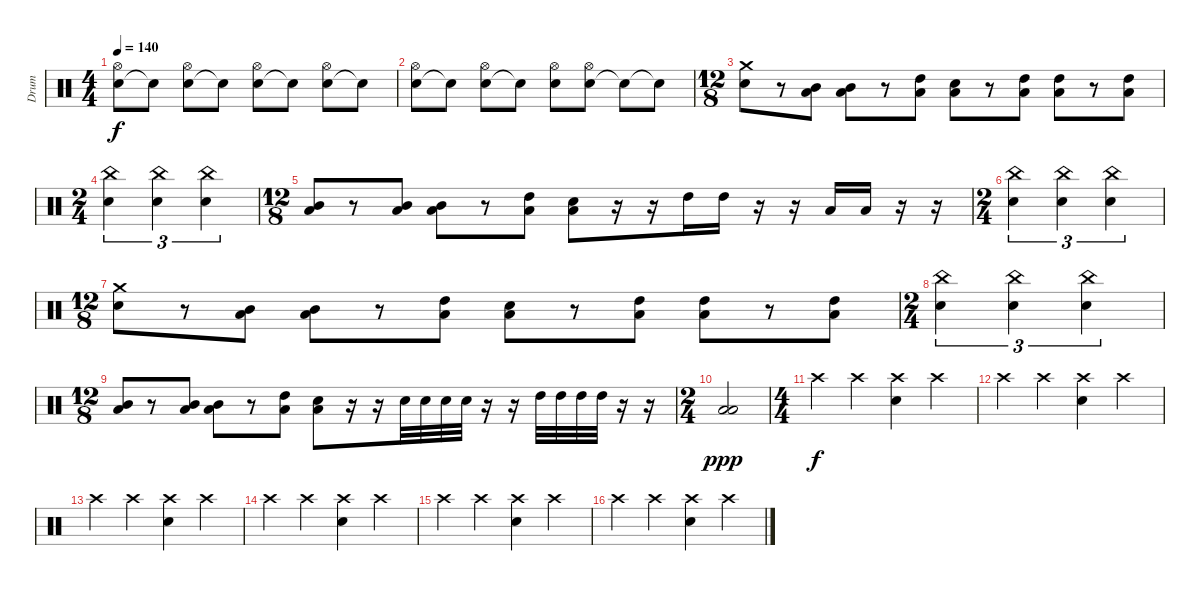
\track ("Drum" "Drum") {instrument percussion}
\staff {score}
\articulation defaults
\ts (4 4)
\tempo 140
\clef neutral
\ks c
("Snare (hit) 2" "Hi-Hat (open)").8{dy f} "Snare (hit)"{t}.8 ("Snare (hit) 2" "Hi-Hat (open)").8 "Snare (hit)"{t}.8 ("Snare (hit) 2" "Hi-Hat (open)").8 "Snare (hit)"{t}.8 ("Snare (hit) 2" "Hi-Hat (open)").8 "Snare (hit)"{t}.8 |
("Snare (hit) 2" "Hi-Hat (open)").8 "Snare (hit)"{t}.8 ("Snare (hit) 2" "Hi-Hat (open)").8 "Snare (hit)"{t}.8 ("Snare (hit) 2" "Hi-Hat (open)").8 ("Snare (hit) 2" "Hi-Hat (open)").8 "Snare (hit)"{t}.8 "Snare (hit)"{t}.8 |
\ts (12 8)
("Crash medium (hit)" "Snare (hit) 2").8 r.8 ("Mid Tom (hit)" "Low Tom (hit)").8 ("Mid Tom (hit)" "Low Tom (hit)").8 r.8 ("High Tom (hit)" "Low Tom (hit)").8 ("Snare (hit) 2" "Low Tom (hit)").8 r.8 ("High Tom (hit)" "Low Tom (hit)").8 ("High Tom (hit)" "Low Tom (hit)").8 r.8 ("Low Tom (hit)" "High Tom (hit)").8 |
\ts (2 4)
("Snare (hit) 2" "China (hit)").4{tu (3 2)} ("China (hit)" "Snare (hit) 2").4{tu (3 2)} ("China (hit)" "Snare (hit) 2").4{tu (3 2)} |
\ts (12 8)
("Mid Tom (hit)" "Low Tom (hit)").8 r.8 ("Mid Tom (hit)" "Low Tom (hit)").8 ("Mid Tom (hit)" "Low Tom (hit)").8 r.8 ("High Tom (hit)" "Low Tom (hit)").8 ("Snare (hit) 2" "Low Tom (hit)").8 r.16 r.16 "High Tom (hit)".16 "High Tom (hit)".16 r.16 r.16 "Low Tom (hit)".16 "Low Tom (hit)".16 r.16 r.16 |
\ts (2 4)
("Snare (hit) 2" "China (hit)").4{tu (3 2)} ("China (hit)" "Snare (hit) 2").4{tu (3 2)} ("China (hit)" "Snare (hit) 2").4{tu (3 2)} |
\ts (12 8)
("Crash medium (hit)" "Snare (hit) 2").8 r.8 ("Mid Tom (hit)" "Low Tom (hit)").8 ("Mid Tom (hit)" "Low Tom (hit)").8 r.8 ("High Tom (hit)" "Low Tom (hit)").8 ("Snare (hit) 2" "Low Tom (hit)").8 r.8 ("High Tom (hit)" "Low Tom (hit)").8 ("High Tom (hit)" "Low Tom (hit)").8 r.8 ("Low Tom (hit)" "High Tom (hit)").8 |
\ts (2 4)
("Snare (hit) 2" "China (hit)").4{tu (3 2)} ("China (hit)" "Snare (hit) 2").4{tu (3 2)} ("China (hit)" "Snare (hit) 2").4{tu (3 2)} |
\ts (12 8)
("Mid Tom (hit)" "Low Tom (hit)").8 r.8 ("Mid Tom (hit)" "Low Tom (hit)").8 ("Mid Tom (hit)" "Low Tom (hit)").8 r.8 ("High Tom (hit)" "Low Tom (hit)").8 ("Snare (hit) 2" "Low Tom (hit)").8 r.16 r.16 "Snare (hit) 2".32 "Snare (hit) 2".32 "Snare (hit) 2".32 "Snare (hit) 2".32 r.16 r.16 "High Tom (hit)".32 "High Tom (hit)".32 "High Tom (hit)".32 "High Tom (hit)".32 r.16 r.16 |
\ts (2 4)
("Low Tom (hit)" "Low Floor Tom (hit)").2{dy ppp} |
\ts (4 4)
"Crash high (hit)".4{dy f} "Crash high (hit)".4 ("Crash high (hit)" "Snare (hit) 2").4 "Crash high (hit)".4 |
"Crash high (hit)".4 "Crash high (hit)".4 ("Crash high (hit)" "Snare (hit) 2").4 "Crash high (hit)".4 |
"Crash high (hit)".4 "Crash high (hit)".4 ("Crash high (hit)" "Snare (hit) 2").4 "Crash high (hit)".4 |
"Crash high (hit)".4 "Crash high (hit)".4 ("Crash high (hit)" "Snare (hit) 2").4 "Crash high (hit)".4 |
"Crash high (hit)".4 "Crash high (hit)".4 ("Crash high (hit)" "Snare (hit) 2").4 "Crash high (hit)".4 |
"Crash high (hit)".4 "Crash high (hit)".4 ("Crash high (hit)" "Snare (hit) 2").4 "Crash high (hit)".4
